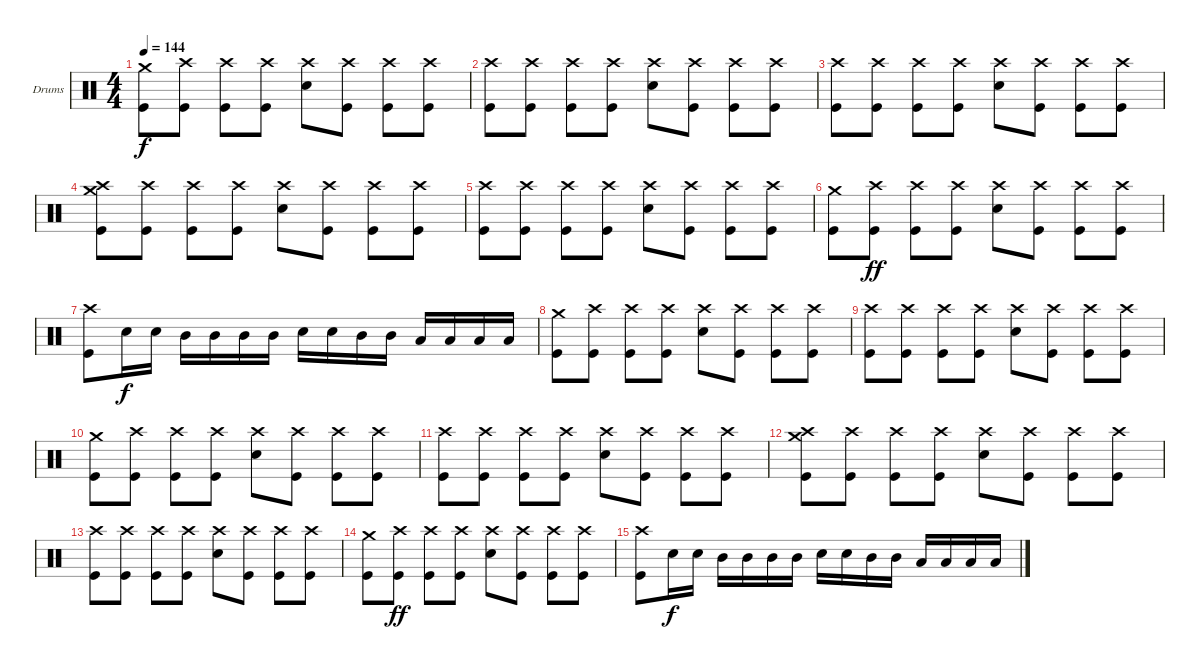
\bracketExtendMode groupsimilarinstruments
\firstSystemTrackNameOrientation horizontal
\otherSystemsTrackNameOrientation horizontal
\track ("Drumkit" "Drums") {instrument percussion}
\staff {score}
\articulation defaults
\ts (4 4)
\tempo 144
\clef neutral
\ks c
("Crash medium (hit)" "Kick (hit)").8{dy f} ("Crash high (hit)" "Kick (hit)").8 ("Crash high (hit)" "Kick (hit)").8 ("Crash high (hit)" "Kick (hit)").8 ("Crash high (hit)" "Snare (hit) 2").8 ("Crash high (hit)" "Kick (hit)").8 ("Crash high (hit)" "Kick (hit)").8 ("Crash high (hit)" "Kick (hit)").8 |
("Crash high (hit)" "Kick (hit)").8 ("Crash high (hit)" "Kick (hit)").8 ("Crash high (hit)" "Kick (hit)").8 ("Crash high (hit)" "Kick (hit)").8 ("Crash high (hit)" "Snare (hit) 2").8 ("Crash high (hit)" "Kick (hit)").8 ("Crash high (hit)" "Kick (hit)").8 ("Crash high (hit)" "Kick (hit)").8 |
("Crash high (hit)" "Kick (hit)").8 ("Crash high (hit)" "Kick (hit)").8 ("Crash high (hit)" "Kick (hit)").8 ("Crash high (hit)" "Kick (hit)").8 ("Crash high (hit)" "Snare (hit) 2").8 ("Crash high (hit)" "Kick (hit)").8 ("Crash high (hit)" "Kick (hit)").8 ("Crash high (hit)" "Kick (hit)").8 |
("Crash medium (hit)" "Crash high (hit)" "Kick (hit)").8 ("Crash high (hit)" "Kick (hit)").8 ("Crash high (hit)" "Kick (hit)").8 ("Crash high (hit)" "Kick (hit)").8 ("Crash high (hit)" "Snare (hit) 2").8 ("Crash high (hit)" "Kick (hit)").8 ("Crash high (hit)" "Kick (hit)").8 ("Crash high (hit)" "Kick (hit)").8 |
("Crash high (hit)" "Kick (hit)").8 ("Crash high (hit)" "Kick (hit)").8 ("Crash high (hit)" "Kick (hit)").8 ("Crash high (hit)" "Kick (hit)").8 ("Crash high (hit)" "Snare (hit) 2").8 ("Crash high (hit)" "Kick (hit)").8 ("Crash high (hit)" "Kick (hit)").8 ("Crash high (hit)" "Kick (hit)").8 |
("Crash medium (hit)" "Kick (hit)").8 ("Crash high (hit)" "Kick (hit)").8{dy ff} ("Crash high (hit)" "Kick (hit)").8 ("Crash high (hit)" "Kick (hit)").8 ("Crash high (hit)" "Snare (hit) 2").8 ("Crash high (hit)" "Kick (hit)").8 ("Crash high (hit)" "Kick (hit)").8 ("Crash high (hit)" "Kick (hit)").8 |
("Crash high (hit)" "Kick (hit)").8 "Snare (hit) 2".16{dy f} "Snare (hit) 2".16 "Mid Tom (hit)".16 "Mid Tom (hit)".16 "Mid Tom (hit)".16 "Mid Tom (hit)".16 "Snare (hit) 2".16 "Snare (hit) 2".16 "Mid Tom (hit)".16 "Mid Tom (hit)".16 "Low Tom (hit)".16 "Low Tom (hit)".16 "Low Tom (hit)".16 "Low Tom (hit)".16 |
("Crash medium (hit)" "Kick (hit)").8 ("Crash high (hit)" "Kick (hit)").8 ("Crash high (hit)" "Kick (hit)").8 ("Crash high (hit)" "Kick (hit)").8 ("Crash high (hit)" "Snare (hit) 2").8 ("Crash high (hit)" "Kick (hit)").8 ("Crash high (hit)" "Kick (hit)").8 ("Crash high (hit)" "Kick (hit)").8 |
("Crash high (hit)" "Kick (hit)").8 ("Crash high (hit)" "Kick (hit)").8 ("Crash high (hit)" "Kick (hit)").8 ("Crash high (hit)" "Kick (hit)").8 ("Crash high (hit)" "Snare (hit) 2").8 ("Crash high (hit)" "Kick (hit)").8 ("Crash high (hit)" "Kick (hit)").8 ("Crash high (hit)" "Kick (hit)").8 |
("Crash medium (hit)" "Kick (hit)").8 ("Crash high (hit)" "Kick (hit)").8 ("Crash high (hit)" "Kick (hit)").8 ("Crash high (hit)" "Kick (hit)").8 ("Crash high (hit)" "Snare (hit) 2").8 ("Crash high (hit)" "Kick (hit)").8 ("Crash high (hit)" "Kick (hit)").8 ("Crash high (hit)" "Kick (hit)").8 |
("Crash high (hit)" "Kick (hit)").8 ("Crash high (hit)" "Kick (hit)").8 ("Crash high (hit)" "Kick (hit)").8 ("Crash high (hit)" "Kick (hit)").8 ("Crash high (hit)" "Snare (hit) 2").8 ("Crash high (hit)" "Kick (hit)").8 ("Crash high (hit)" "Kick (hit)").8 ("Crash high (hit)" "Kick (hit)").8 |
("Crash medium (hit)" "Crash high (hit)" "Kick (hit)").8 ("Crash high (hit)" "Kick (hit)").8 ("Crash high (hit)" "Kick (hit)").8 ("Crash high (hit)" "Kick (hit)").8 ("Crash high (hit)" "Snare (hit) 2").8 ("Crash high (hit)" "Kick (hit)").8 ("Crash high (hit)" "Kick (hit)").8 ("Crash high (hit)" "Kick (hit)").8 |
("Crash high (hit)" "Kick (hit)").8 ("Crash high (hit)" "Kick (hit)").8 ("Crash high (hit)" "Kick (hit)").8 ("Crash high (hit)" "Kick (hit)").8 ("Crash high (hit)" "Snare (hit) 2").8 ("Crash high (hit)" "Kick (hit)").8 ("Crash high (hit)" "Kick (hit)").8 ("Crash high (hit)" "Kick (hit)").8 |
("Crash medium (hit)" "Kick (hit)").8 ("Crash high (hit)" "Kick (hit)").8{dy ff} ("Crash high (hit)" "Kick (hit)").8 ("Crash high (hit)" "Kick (hit)").8 ("Crash high (hit)" "Snare (hit) 2").8 ("Crash high (hit)" "Kick (hit)").8 ("Crash high (hit)" "Kick (hit)").8 ("Crash high (hit)" "Kick (hit)").8 |
("Crash high (hit)" "Kick (hit)").8 "Snare (hit) 2".16{dy f} "Snare (hit) 2".16 "Mid Tom (hit)".16 "Mid Tom (hit)".16 "Mid Tom (hit)".16 "Mid Tom (hit)".16 "Snare (hit) 2".16 "Snare (hit) 2".16 "Mid Tom (hit)".16 "Mid Tom (hit)".16 "Low Tom (hit)".16 "Low Tom (hit)".16 "Low Tom (hit)".16 "Low Tom (hit)".16
